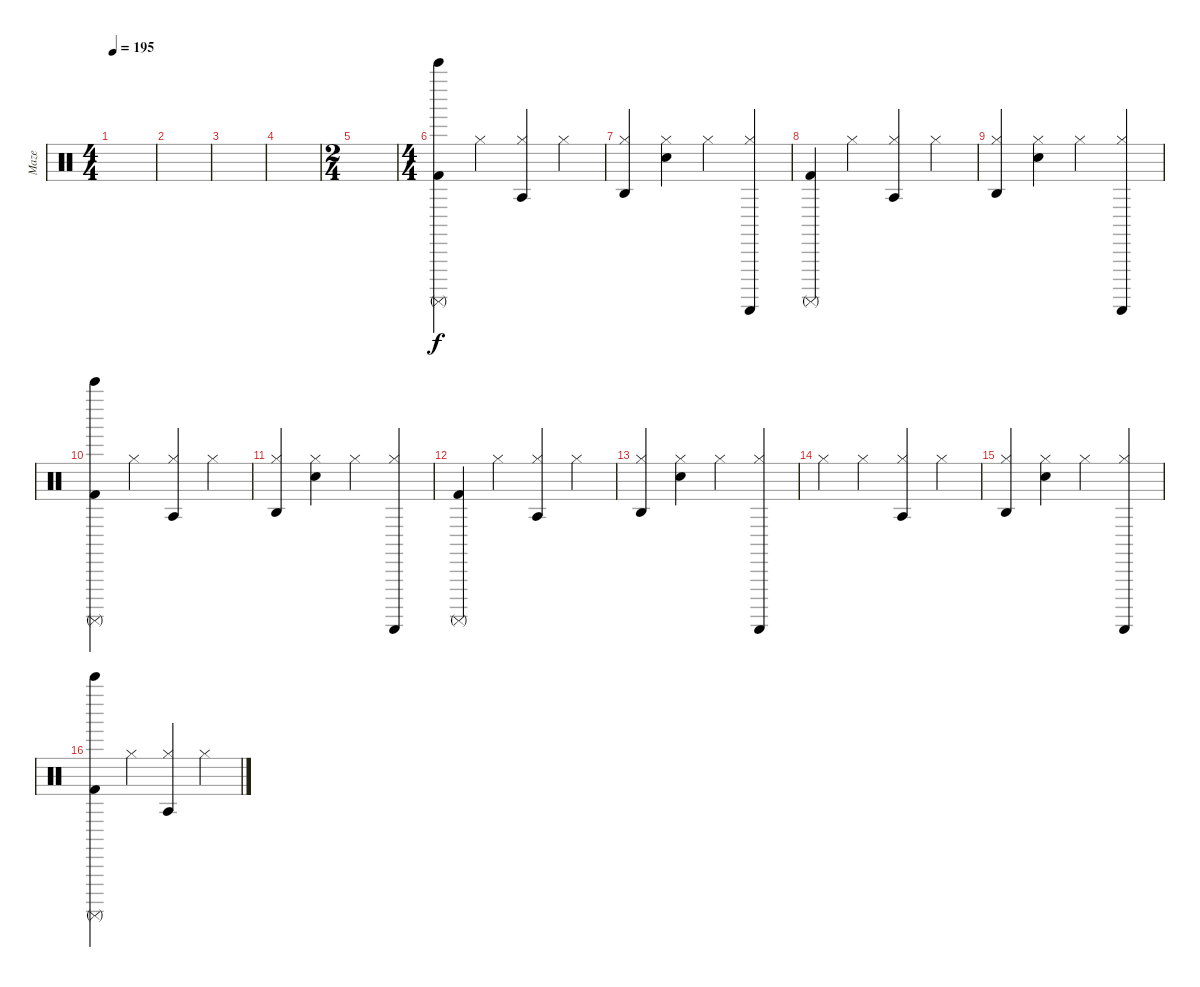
\track ("Maze" "Maze") {instrument percussion}
\staff
\articulation defaults
\ts (4 4)
\tempo 195
\clef neutral
\ks c
|
|
|
|
\ts (2 4)
|
\ts (4 4)
("Bell Tree (hit)" "Surdo (mute)" "Kick (hit) 2").4 "Hi-Hat (closed)".4 ("Agogo tow (hit)" "Hi-Hat (closed)").4 "Hi-Hat (closed)".4 |
("Agogo high (hit)" "Hi-Hat (closed)").4 ("Metronome (bell)" "Hi-Hat (closed)").4 "Hi-Hat (closed)".4 ("Guiro (scrap-return)" "Hi-Hat (closed)").4 |
("Surdo (mute)" "Kick (hit) 2").4 "Hi-Hat (closed)".4 ("Agogo tow (hit)" "Hi-Hat (closed)").4 "Hi-Hat (closed)".4 |
("Agogo high (hit)" "Hi-Hat (closed)").4 ("Metronome (bell)" "Hi-Hat (closed)").4 "Hi-Hat (closed)".4 ("Guiro (scrap-return)" "Hi-Hat (closed)").4 |
("Bell Tree (hit)" "Surdo (mute)" "Kick (hit) 2").4 "Hi-Hat (closed)".4 ("Agogo tow (hit)" "Hi-Hat (closed)").4 "Hi-Hat (closed)".4 |
("Agogo high (hit)" "Hi-Hat (closed)").4 ("Metronome (bell)" "Hi-Hat (closed)").4 "Hi-Hat (closed)".4 ("Guiro (scrap-return)" "Hi-Hat (closed)").4 |
("Surdo (mute)" "Kick (hit) 2").4 "Hi-Hat (closed)".4 ("Agogo tow (hit)" "Hi-Hat (closed)").4 "Hi-Hat (closed)".4 |
("Agogo high (hit)" "Hi-Hat (closed)").4 ("Metronome (bell)" "Hi-Hat (closed)").4 "Hi-Hat (closed)".4 ("Guiro (scrap-return)" "Hi-Hat (closed)").4 |
"Hi-Hat (closed)".4 "Hi-Hat (closed)".4 ("Agogo tow (hit)" "Hi-Hat (closed)").4 "Hi-Hat (closed)".4 |
("Agogo high (hit)" "Hi-Hat (closed)").4 ("Metronome (bell)" "Hi-Hat (closed)").4 "Hi-Hat (closed)".4 ("Guiro (scrap-return)" "Hi-Hat (closed)").4 |
("Bell Tree (hit)" "Surdo (mute)" "Kick (hit) 2").4 "Hi-Hat (closed)".4 ("Agogo tow (hit)" "Hi-Hat (closed)").4 "Hi-Hat (closed)".4
